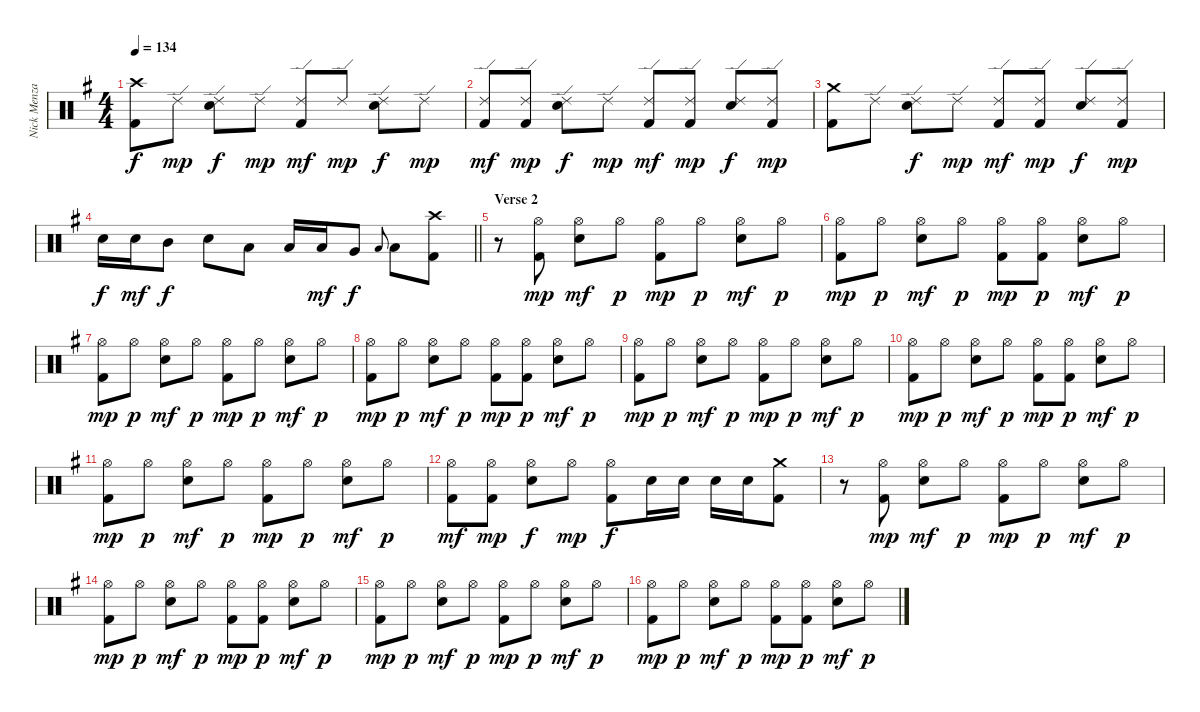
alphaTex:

\track ("Nick Menza" "Nick Menza") {instrument percussion}
\staff {score}
\articulation defaults
\ts (4 4)
\tempo 134
\clef neutral
\ks eminor
("Crash high (hit)" "Kick (hit) 2").8{dy f} "Ride (edge) 2".8{dy mp} ("Ride (edge) 2" "Snare (hit) 2").8{dy f} "Ride (edge) 2".8{dy mp} ("Ride (edge) 2" "Kick (hit) 2").8{dy mf} "Ride (edge) 2".8{dy mp} ("Ride (edge) 2" "Snare (hit) 2").8{dy f} "Ride (edge) 2".8{dy mp} |
("Ride (edge) 2" "Kick (hit) 2").8{dy mf} ("Ride (edge) 2" "Kick (hit) 2").8{dy mp} ("Ride (edge) 2" "Snare (hit) 2").8{dy f} "Ride (edge) 2".8{dy mp} ("Ride (edge) 2" "Kick (hit) 2").8{dy mf} ("Ride (edge) 2" "Kick (hit) 2").8{dy mp} ("Ride (edge) 2" "Snare (hit) 2").8{dy f} ("Ride (edge) 2" "Kick (hit) 2").8{dy mp} |
("Crash medium (hit)" "Kick (hit) 2").8 "Ride (edge) 2".8 ("Ride (edge) 2" "Snare (hit) 2").8{dy f} "Ride (edge) 2".8{dy mp} ("Ride (edge) 2" "Kick (hit) 2").8{dy mf} ("Ride (edge) 2" "Kick (hit) 2").8{dy mp} ("Ride (edge) 2" "Snare (hit) 2").8{dy f} ("Ride (edge) 2" "Kick (hit) 2").8{dy mp} |
\barLineRight lightlight "Snare (hit) 2".16{dy f} "Snare (hit) 2".16{dy mf} "Mid Tom (hit)".8{dy f} "Snare (hit) 2".8 "Low Tom (hit)".8 "Low Tom (hit)".16 "Low Tom (hit)".16{dy mf} "Very Low Tom (hit)".8{dy f} "Low Floor Tom (hit)".8{gr onbeat} "Low Floor Tom (hit)".8
("Crash high (hit)" "Kick (hit) 2").8 |
\section ("" "Verse 2")
r.8 ("Hi-Hat (open)" "Kick (hit) 2").8{dy mp} ("Hi-Hat (open)" "Snare (hit) 2").8{dy mf} "Hi-Hat (open)".8{dy p} ("Hi-Hat (open)" "Kick (hit) 2").8{dy mp} "Hi-Hat (open)".8{dy p} ("Hi-Hat (open)" "Snare (hit) 2").8{dy mf} "Hi-Hat (open)".8{dy p} |
("Hi-Hat (open)" "Kick (hit) 2").8{dy mp} "Hi-Hat (open)".8{dy p} ("Hi-Hat (open)" "Snare (hit) 2").8{dy mf} "Hi-Hat (open)".8{dy p} ("Hi-Hat (open)" "Kick (hit) 2").8{dy mp} ("Hi-Hat (open)" "Kick (hit) 2").8{dy p} ("Hi-Hat (open)" "Snare (hit) 2").8{dy mf} "Hi-Hat (open)".8{dy p} |
("Hi-Hat (open)" "Kick (hit) 2").8{dy mp} "Hi-Hat (open)".8{dy p} ("Hi-Hat (open)" "Snare (hit) 2").8{dy mf} "Hi-Hat (open)".8{dy p} ("Hi-Hat (open)" "Kick (hit) 2").8{dy mp} "Hi-Hat (open)".8{dy p} ("Hi-Hat (open)" "Snare (hit) 2").8{dy mf} "Hi-Hat (open)".8{dy p} |
("Hi-Hat (open)" "Kick (hit) 2").8{dy mp} "Hi-Hat (open)".8{dy p} ("Hi-Hat (open)" "Snare (hit) 2").8{dy mf} "Hi-Hat (open)".8{dy p} ("Hi-Hat (open)" "Kick (hit) 2").8{dy mp} ("Hi-Hat (open)" "Kick (hit) 2").8{dy p} ("Hi-Hat (open)" "Snare (hit) 2").8{dy mf} "Hi-Hat (open)".8{dy p} |
("Hi-Hat (open)" "Kick (hit) 2").8{dy mp} "Hi-Hat (open)".8{dy p} ("Hi-Hat (open)" "Snare (hit) 2").8{dy mf} "Hi-Hat (open)".8{dy p} ("Hi-Hat (open)" "Kick (hit) 2").8{dy mp} "Hi-Hat (open)".8{dy p} ("Hi-Hat (open)" "Snare (hit) 2").8{dy mf} "Hi-Hat (open)".8{dy p} |
("Hi-Hat (open)" "Kick (hit) 2").8{dy mp} "Hi-Hat (open)".8{dy p} ("Hi-Hat (open)" "Snare (hit) 2").8{dy mf} "Hi-Hat (open)".8{dy p} ("Hi-Hat (open)" "Kick (hit) 2").8{dy mp} ("Hi-Hat (open)" "Kick (hit) 2").8{dy p} ("Hi-Hat (open)" "Snare (hit) 2").8{dy mf} "Hi-Hat (open)".8{dy p} |
("Hi-Hat (open)" "Kick (hit) 2").8{dy mp} "Hi-Hat (open)".8{dy p} ("Hi-Hat (open)" "Snare (hit) 2").8{dy mf} "Hi-Hat (open)".8{dy p} ("Hi-Hat (open)" "Kick (hit) 2").8{dy mp} "Hi-Hat (open)".8{dy p} ("Hi-Hat (open)" "Snare (hit) 2").8{dy mf} "Hi-Hat (open)".8{dy p} |
("Hi-Hat (open)" "Kick (hit) 2").8{dy mf} ("Hi-Hat (open)" "Kick (hit) 2").8{dy mp} ("Hi-Hat (open)" "Snare (hit) 2").8{dy f} "Hi-Hat (open)".8{dy mp} ("Hi-Hat (open)" "Kick (hit) 2").8{dy f} "Snare (hit) 2".16 "Snare (hit) 2".16 "Snare (hit) 2".16 "Snare (hit) 2".16 ("Crash medium (hit)" "Kick (hit) 2").8 |
r.8 ("Hi-Hat (open)" "Kick (hit) 2").8{dy mp} ("Hi-Hat (open)" "Snare (hit) 2").8{dy mf} "Hi-Hat (open)".8{dy p} ("Hi-Hat (open)" "Kick (hit) 2").8{dy mp} "Hi-Hat (open)".8{dy p} ("Hi-Hat (open)" "Snare (hit) 2").8{dy mf} "Hi-Hat (open)".8{dy p} |
("Hi-Hat (open)" "Kick (hit) 2").8{dy mp} "Hi-Hat (open)".8{dy p} ("Hi-Hat (open)" "Snare (hit) 2").8{dy mf} "Hi-Hat (open)".8{dy p} ("Hi-Hat (open)" "Kick (hit) 2").8{dy mp} ("Hi-Hat (open)" "Kick (hit) 2").8{dy p} ("Hi-Hat (open)" "Snare (hit) 2").8{dy mf} "Hi-Hat (open)".8{dy p} |
("Hi-Hat (open)" "Kick (hit) 2").8{dy mp} "Hi-Hat (open)".8{dy p} ("Hi-Hat (open)" "Snare (hit) 2").8{dy mf} "Hi-Hat (open)".8{dy p} ("Hi-Hat (open)" "Kick (hit) 2").8{dy mp} "Hi-Hat (open)".8{dy p} ("Hi-Hat (open)" "Snare (hit) 2").8{dy mf} "Hi-Hat (open)".8{dy p} |
("Hi-Hat (open)" "Kick (hit) 2").8{dy mp} "Hi-Hat (open)".8{dy p} ("Hi-Hat (open)" "Snare (hit) 2").8{dy mf} "Hi-Hat (open)".8{dy p} ("Hi-Hat (open)" "Kick (hit) 2").8{dy mp} ("Hi-Hat (open)" "Kick (hit) 2").8{dy p} ("Hi-Hat (open)" "Snare (hit) 2").8{dy mf} "Hi-Hat (open)".8{dy p}
